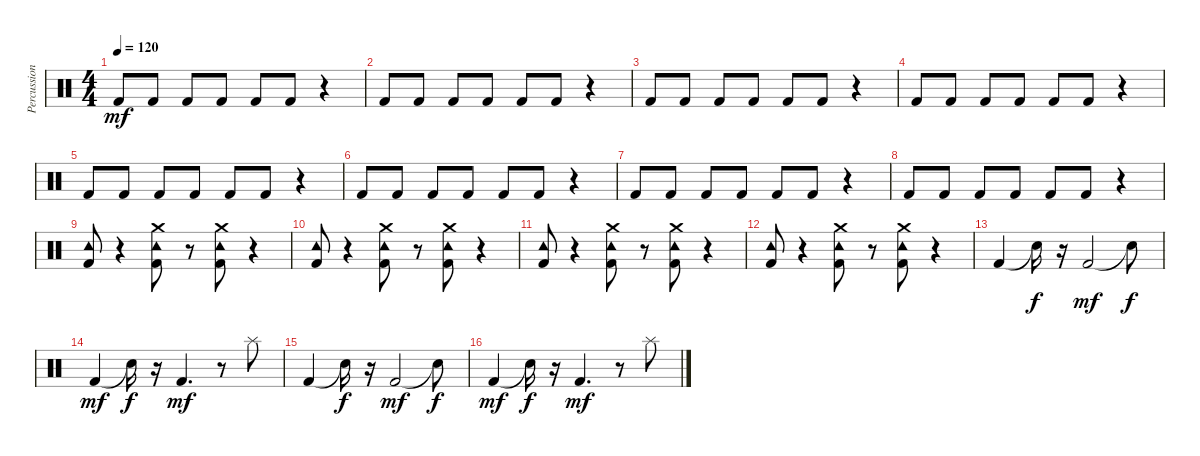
\track ("Percussions" "Percussion") {instrument percussion}
\staff {score}
\articulation defaults
\ts (4 4)
\tempo 120
\clef neutral
\ks c "Kick (hit) 2".8{dy mf} "Kick (hit) 2".8 "Kick (hit) 2".8 "Kick (hit) 2".8 "Kick (hit) 2".8 "Kick (hit) 2".8
r.4 |
"Kick (hit) 2".8 "Kick (hit) 2".8 "Kick (hit) 2".8 "Kick (hit) 2".8 "Kick (hit) 2".8 "Kick (hit) 2".8 r.4 |
"Kick (hit) 2".8 "Kick (hit) 2".8 "Kick (hit) 2".8 "Kick (hit) 2".8 "Kick (hit) 2".8 "Kick (hit) 2".8 r.4 |
"Kick (hit) 2".8 "Kick (hit) 2".8 "Kick (hit) 2".8 "Kick (hit) 2".8 "Kick (hit) 2".8 "Kick (hit) 2".8 r.4 |
"Kick (hit) 2".8 "Kick (hit) 2".8 "Kick (hit) 2".8 "Kick (hit) 2".8 "Kick (hit) 2".8 "Kick (hit) 2".8 r.4 |
"Kick (hit) 2".8 "Kick (hit) 2".8 "Kick (hit) 2".8 "Kick (hit) 2".8 "Kick (hit) 2".8 "Kick (hit) 2".8 r.4 |
"Kick (hit) 2".8 "Kick (hit) 2".8 "Kick (hit) 2".8 "Kick (hit) 2".8 "Kick (hit) 2".8 "Kick (hit) 2".8 r.4 |
"Kick (hit) 2".8 "Kick (hit) 2".8 "Kick (hit) 2".8 "Kick (hit) 2".8 "Kick (hit) 2".8 "Kick (hit) 2".8 r.4 |
("Tambourine (hit)" "Kick (hit) 2").8 r.4 ("Kick (hit) 2" "Tambourine (hit)" "Crash medium (hit)").8 r.8 ("Crash medium (hit)" "Tambourine (hit)" "Kick (hit) 2").8 r.4 |
("Kick (hit) 2" "Tambourine (hit)").8 r.4 ("Crash medium (hit)" "Tambourine (hit)" "Kick (hit) 2").8 r.8 ("Tambourine (hit)" "Kick (hit) 2" "Crash medium (hit)").8 r.4 |
("Tambourine (hit)" "Kick (hit) 2").8 r.4 ("Kick (hit) 2" "Tambourine (hit)" "Crash medium (hit)").8 r.8 ("Crash medium (hit)" "Kick (hit) 2" "Tambourine (hit)").8 r.4 |
("Kick (hit) 2" "Tambourine (hit)").8 r.4 ("Crash medium (hit)" "Tambourine (hit)" "Kick (hit) 2").8 r.8 ("Tambourine (hit)" "Kick (hit) 2" "Crash medium (hit)").8 r.4 |
"Kick (hit) 2".4 "Snare (hit)"{t}.16{dy f} r.16 "Kick (hit) 2".2{dy mf} "Snare (hit)"{t}.8{dy f} |
"Kick (hit) 2".4{dy mf} "Snare (hit)"{t}.16{dy f} r.16 "Kick (hit) 2".4{d dy mf} r.8 "Splash (hit)".8 |
"Kick (hit) 2".4 "Snare (hit)"{t}.16{dy f} r.16 "Kick (hit) 2".2{dy mf} "Snare (hit)"{t}.8{dy f} |
"Kick (hit) 2".4{dy mf} "Snare (hit)"{t}.16{dy f} r.16 "Kick (hit) 2".4{d dy mf} r.8 "Splash (hit)".8
